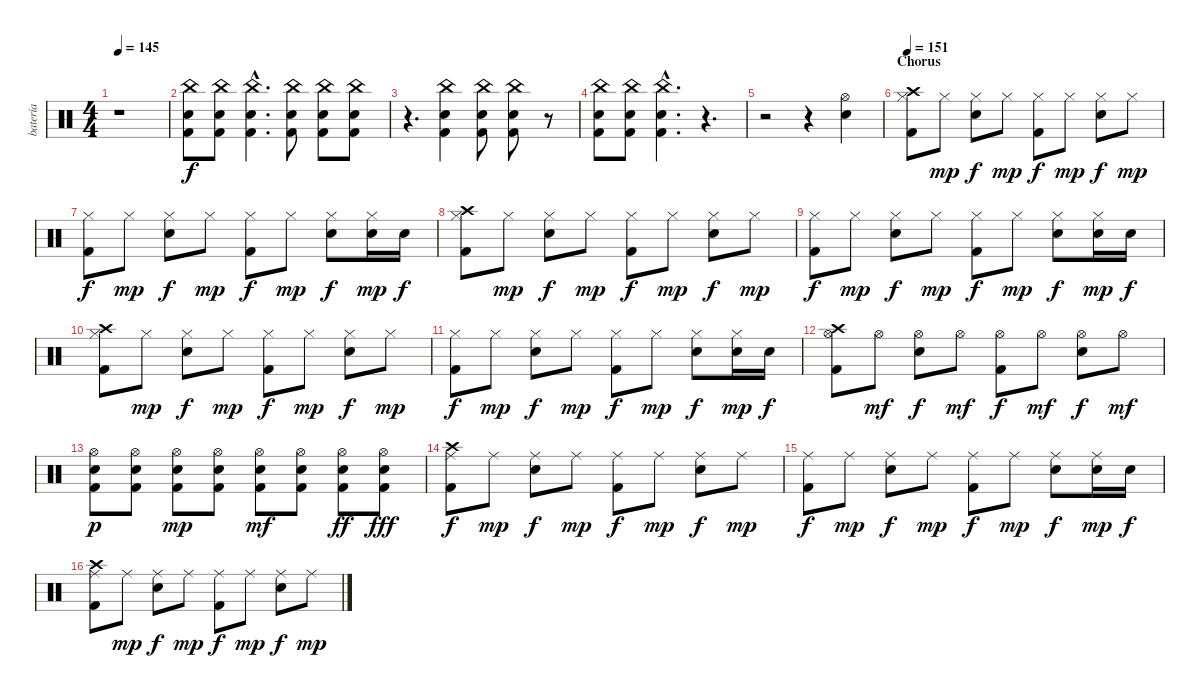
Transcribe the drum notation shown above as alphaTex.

\track ("batería" "batería") {instrument percussion}
\staff {score}
\articulation defaults
\ts (4 4)
\tempo 145
\clef neutral
\ks c
r.1{dy f} |
("China (hit)" "Electric Snare (hit)" "Kick (hit) 2").8 ("China (hit)" "Electric Snare (hit)" "Kick (hit) 2").8 ("China (hit)"{hac} "Electric Snare (hit)"{hac} "Kick (hit) 2"{hac}).4{d} ("China (hit)" "Electric Snare (hit)" "Kick (hit) 2").8 ("China (hit)" "Electric Snare (hit)" "Kick (hit) 2").8 ("China (hit)" "Electric Snare (hit)" "Kick (hit) 2").8 |
r.4{d} ("China (hit)" "Electric Snare (hit)" "Kick (hit) 2").4 ("China (hit)" "Electric Snare (hit)" "Kick (hit) 2").8 ("China (hit)" "Electric Snare (hit)" "Kick (hit) 2").8 r.8 |
("China (hit)" "Electric Snare (hit)" "Kick (hit) 2").8 ("China (hit)" "Electric Snare (hit)" "Kick (hit) 2").8 ("China (hit)"{hac} "Electric Snare (hit)"{hac} "Kick (hit) 2"{hac}).4{d} r.4{d} |
r.2 r.4 ("Hi-Hat (open)" "Electric Snare (hit)").4 |
\section ("" "Chorus")
\tempo 151
("Crash high (hit)" "Hi-Hat (closed)" "Kick (hit) 2").8 "Hi-Hat (closed)".8{dy mp} ("Hi-Hat (closed)" "Electric Snare (hit)").8{dy f} "Hi-Hat (closed)".8{dy mp} ("Hi-Hat (closed)" "Kick (hit) 2").8{dy f} "Hi-Hat (closed)".8{dy mp} ("Hi-Hat (closed)" "Electric Snare (hit)").8{dy f} "Hi-Hat (closed)".8{dy mp} |
("Hi-Hat (closed)" "Kick (hit) 2").8{dy f} "Hi-Hat (closed)".8{dy mp} ("Hi-Hat (closed)" "Electric Snare (hit)").8{dy f} "Hi-Hat (closed)".8{dy mp} ("Hi-Hat (closed)" "Kick (hit) 2").8{dy f} "Hi-Hat (closed)".8{dy mp} ("Hi-Hat (closed)" "Electric Snare (hit)").8{dy f} ("Hi-Hat (closed)" "Electric Snare (hit)").16{dy mp} "Electric Snare (hit)".16{dy f} |
("Crash high (hit)" "Hi-Hat (closed)" "Kick (hit) 2").8 "Hi-Hat (closed)".8{dy mp} ("Hi-Hat (closed)" "Electric Snare (hit)").8{dy f} "Hi-Hat (closed)".8{dy mp} ("Hi-Hat (closed)" "Kick (hit) 2").8{dy f} "Hi-Hat (closed)".8{dy mp} ("Hi-Hat (closed)" "Electric Snare (hit)").8{dy f} "Hi-Hat (closed)".8{dy mp} |
("Hi-Hat (closed)" "Kick (hit) 2").8{dy f} "Hi-Hat (closed)".8{dy mp} ("Hi-Hat (closed)" "Electric Snare (hit)").8{dy f} "Hi-Hat (closed)".8{dy mp} ("Hi-Hat (closed)" "Kick (hit) 2").8{dy f} "Hi-Hat (closed)".8{dy mp} ("Hi-Hat (closed)" "Electric Snare (hit)").8{dy f} ("Hi-Hat (closed)" "Electric Snare (hit)").16{dy mp} "Electric Snare (hit)".16{dy f} |
("Crash high (hit)" "Hi-Hat (closed)" "Kick (hit) 2").8 "Hi-Hat (closed)".8{dy mp} ("Hi-Hat (closed)" "Electric Snare (hit)").8{dy f} "Hi-Hat (closed)".8{dy mp} ("Hi-Hat (closed)" "Kick (hit) 2").8{dy f} "Hi-Hat (closed)".8{dy mp} ("Hi-Hat (closed)" "Electric Snare (hit)").8{dy f} "Hi-Hat (closed)".8{dy mp} |
("Hi-Hat (closed)" "Kick (hit) 2").8{dy f} "Hi-Hat (closed)".8{dy mp} ("Hi-Hat (closed)" "Electric Snare (hit)").8{dy f} "Hi-Hat (closed)".8{dy mp} ("Hi-Hat (closed)" "Kick (hit) 2").8{dy f} "Hi-Hat (closed)".8{dy mp} ("Hi-Hat (closed)" "Electric Snare (hit)").8{dy f} ("Hi-Hat (closed)" "Electric Snare (hit)").16{dy mp} "Electric Snare (hit)".16{dy f} |
("Crash high (hit)" "Hi-Hat (open)" "Kick (hit) 2").8 "Hi-Hat (open)".8{dy mf} ("Hi-Hat (open)" "Electric Snare (hit)").8{dy f} "Hi-Hat (open)".8{dy mf} ("Hi-Hat (open)" "Kick (hit) 2").8{dy f} "Hi-Hat (open)".8{dy mf} ("Hi-Hat (open)" "Electric Snare (hit)").8{dy f} "Hi-Hat (open)".8{dy mf} |
("Hi-Hat (open)" "Electric Snare (hit)" "Kick (hit) 2").8{dy p} ("Hi-Hat (open)" "Electric Snare (hit)" "Kick (hit) 2").8 ("Hi-Hat (open)" "Electric Snare (hit)" "Kick (hit) 2").8{dy mp} ("Hi-Hat (open)" "Electric Snare (hit)" "Kick (hit) 2").8 ("Hi-Hat (open)" "Electric Snare (hit)" "Kick (hit) 2").8{dy mf} ("Hi-Hat (open)" "Electric Snare (hit)" "Kick (hit) 2").8 ("Hi-Hat (open)" "Electric Snare (hit)" "Kick (hit) 2").8{dy ff} ("Hi-Hat (open)" "Electric Snare (hit)" "Kick (hit) 2").8{dy fff} |
("Crash high (hit)" "Ride (middle)" "Kick (hit) 2").8{dy f} "Ride (middle)".8{dy mp} ("Ride (middle)" "Electric Snare (hit)").8{dy f} "Ride (middle)".8{dy mp} ("Ride (middle)" "Kick (hit) 2").8{dy f} "Ride (middle)".8{dy mp} ("Ride (middle)" "Electric Snare (hit)").8{dy f} "Ride (middle)".8{dy mp} |
("Ride (middle)" "Kick (hit) 2").8{dy f} "Ride (middle)".8{dy mp} ("Ride (middle)" "Electric Snare (hit)").8{dy f} "Ride (middle)".8{dy mp} ("Ride (middle)" "Kick (hit) 2").8{dy f} "Ride (middle)".8{dy mp} ("Ride (middle)" "Electric Snare (hit)").8{dy f} ("Ride (middle)" "Electric Snare (hit)").16{dy mp} "Electric Snare (hit)".16{dy f} |
("Crash high (hit)" "Ride (middle)" "Kick (hit) 2").8 "Ride (middle)".8{dy mp} ("Ride (middle)" "Electric Snare (hit)").8{dy f} "Ride (middle)".8{dy mp} ("Ride (middle)" "Kick (hit) 2").8{dy f} "Ride (middle)".8{dy mp} ("Ride (middle)" "Electric Snare (hit)").8{dy f} "Ride (middle)".8{dy mp}
